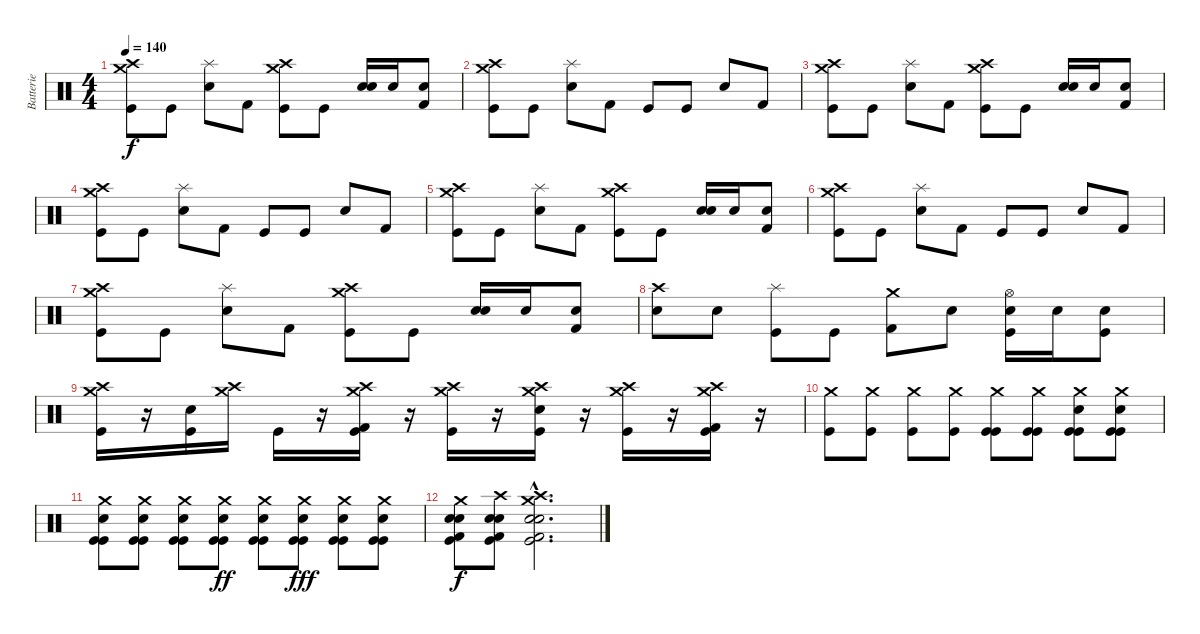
\track ("Batterie" "Batterie") {instrument percussion}
\staff {score}
\articulation defaults
\ts (4 4)
\tempo 140
\clef neutral
\ks c
("Crash medium (hit)" "Crash high (hit)" "Kick (hit)").8{dy f} "Kick (hit)".8 ("Splash (hit)" "Electric Snare (hit)").8 "Kick (hit) 2".8 ("Crash medium (hit)" "Crash high (hit)" "Kick (hit)").8 "Kick (hit)".8 ("Snare (hit) 2" "Electric Snare (hit)").16 "Electric Snare (hit)".16 ("Electric Snare (hit)" "Kick (hit) 2").8 |
("Crash medium (hit)" "Crash high (hit)" "Kick (hit)").8 "Kick (hit)".8 ("Splash (hit)" "Electric Snare (hit)").8 "Kick (hit) 2".8 "Kick (hit)".8 "Kick (hit)".8 "Snare (hit) 2".8 "Kick (hit) 2".8 |
("Crash medium (hit)" "Crash high (hit)" "Kick (hit)").8 "Kick (hit)".8 ("Splash (hit)" "Electric Snare (hit)").8 "Kick (hit) 2".8 ("Crash medium (hit)" "Crash high (hit)" "Kick (hit)").8 "Kick (hit)".8 ("Snare (hit) 2" "Electric Snare (hit)").16 "Electric Snare (hit)".16 ("Electric Snare (hit)" "Kick (hit) 2").8 |
("Crash medium (hit)" "Crash high (hit)" "Kick (hit)").8 "Kick (hit)".8 ("Splash (hit)" "Electric Snare (hit)").8 "Kick (hit) 2".8 "Kick (hit)".8 "Kick (hit)".8 "Snare (hit) 2".8 "Kick (hit) 2".8 |
("Crash medium (hit)" "Crash high (hit)" "Kick (hit)").8 "Kick (hit)".8 ("Splash (hit)" "Electric Snare (hit)").8 "Kick (hit) 2".8 ("Crash medium (hit)" "Crash high (hit)" "Kick (hit)").8 "Kick (hit)".8 ("Snare (hit) 2" "Electric Snare (hit)").16 "Electric Snare (hit)".16 ("Electric Snare (hit)" "Kick (hit) 2").8 |
("Crash medium (hit)" "Crash high (hit)" "Kick (hit)").8 "Kick (hit)".8 ("Splash (hit)" "Electric Snare (hit)").8 "Kick (hit) 2".8 "Kick (hit)".8 "Kick (hit)".8 "Snare (hit) 2".8 "Kick (hit) 2".8 |
("Crash medium (hit)" "Crash high (hit)" "Kick (hit)").8 "Kick (hit)".8 ("Splash (hit)" "Electric Snare (hit)").8 "Kick (hit) 2".8 ("Crash medium (hit)" "Crash high (hit)" "Kick (hit)").8 "Kick (hit)".8 ("Snare (hit) 2" "Electric Snare (hit)").16 "Electric Snare (hit)".16 ("Electric Snare (hit)" "Kick (hit) 2").8 |
("Crash high (hit)" "Electric Snare (hit)").8 "Electric Snare (hit)".8 ("Splash (hit)" "Kick (hit)").8 "Kick (hit)".8 ("Crash medium (hit)" "Kick (hit) 2").8 "Electric Snare (hit)".8 ("Hi-Hat (open)" "Electric Snare (hit)" "Kick (hit)").16 "Electric Snare (hit)".16 ("Electric Snare (hit)" "Kick (hit)").8 |
("Crash medium (hit)" "Crash high (hit)" "Kick (hit)").16 r.16 ("Electric Snare (hit)" "Kick (hit)").16 ("Crash medium (hit)" "Crash high (hit)").16 "Kick (hit)".16 r.16 ("Crash medium (hit)" "Crash high (hit)" "Kick (hit) 2" "Kick (hit)").16 r.16 ("Crash medium (hit)" "Crash high (hit)" "Kick (hit)").16 r.16 ("Crash medium (hit)" "Crash high (hit)" "Electric Snare (hit)" "Kick (hit)").16 r.16 ("Crash medium (hit)" "Crash high (hit)" "Kick (hit)").16 r.16 ("Crash medium (hit)" "Crash high (hit)" "Kick (hit) 2" "Kick (hit)").16 r.16 |
("Crash medium (hit)" "Kick (hit)").8 ("Crash medium (hit)" "Kick (hit)").8 ("Crash medium (hit)" "Kick (hit)").8 ("Crash medium (hit)" "Kick (hit)").8 ("Crash medium (hit)" "Kick (hit)" "Kick (hit)").8 ("Crash medium (hit)" "Kick (hit)" "Kick (hit)").8 ("Crash medium (hit)" "Electric Snare (hit)" "Kick (hit)" "Kick (hit)").8 ("Crash medium (hit)" "Electric Snare (hit)" "Kick (hit)" "Kick (hit)").8 |
("Crash medium (hit)" "Electric Snare (hit)" "Kick (hit)" "Kick (hit)").8 ("Crash medium (hit)" "Electric Snare (hit)" "Kick (hit)" "Kick (hit)").8 ("Crash medium (hit)" "Electric Snare (hit)" "Kick (hit)" "Kick (hit)").8 ("Crash medium (hit)" "Electric Snare (hit)" "Kick (hit)" "Kick (hit)").8{dy ff} ("Crash medium (hit)" "Electric Snare (hit)" "Kick (hit)" "Kick (hit)").8 ("Crash medium (hit)" "Electric Snare (hit)" "Kick (hit)" "Kick (hit)").8{dy fff} ("Crash medium (hit)" "Electric Snare (hit)" "Kick (hit)" "Kick (hit)").8 ("Crash medium (hit)" "Electric Snare (hit)" "Kick (hit)" "Kick (hit)").8 |
("Crash medium (hit)" "Electric Snare (hit)" "Electric Snare (hit)" "Kick (hit) 2" "Kick (hit)").8{dy f} ("Crash high (hit)" "Electric Snare (hit)" "Electric Snare (hit)" "Kick (hit) 2" "Kick (hit)").8 ("Crash medium (hit)"{hac} "Crash high (hit)"{hac} "Electric Snare (hit)"{hac} "Electric Snare (hit)"{hac} "Kick (hit) 2"{hac} "Kick (hit)"{hac}).2{d}
